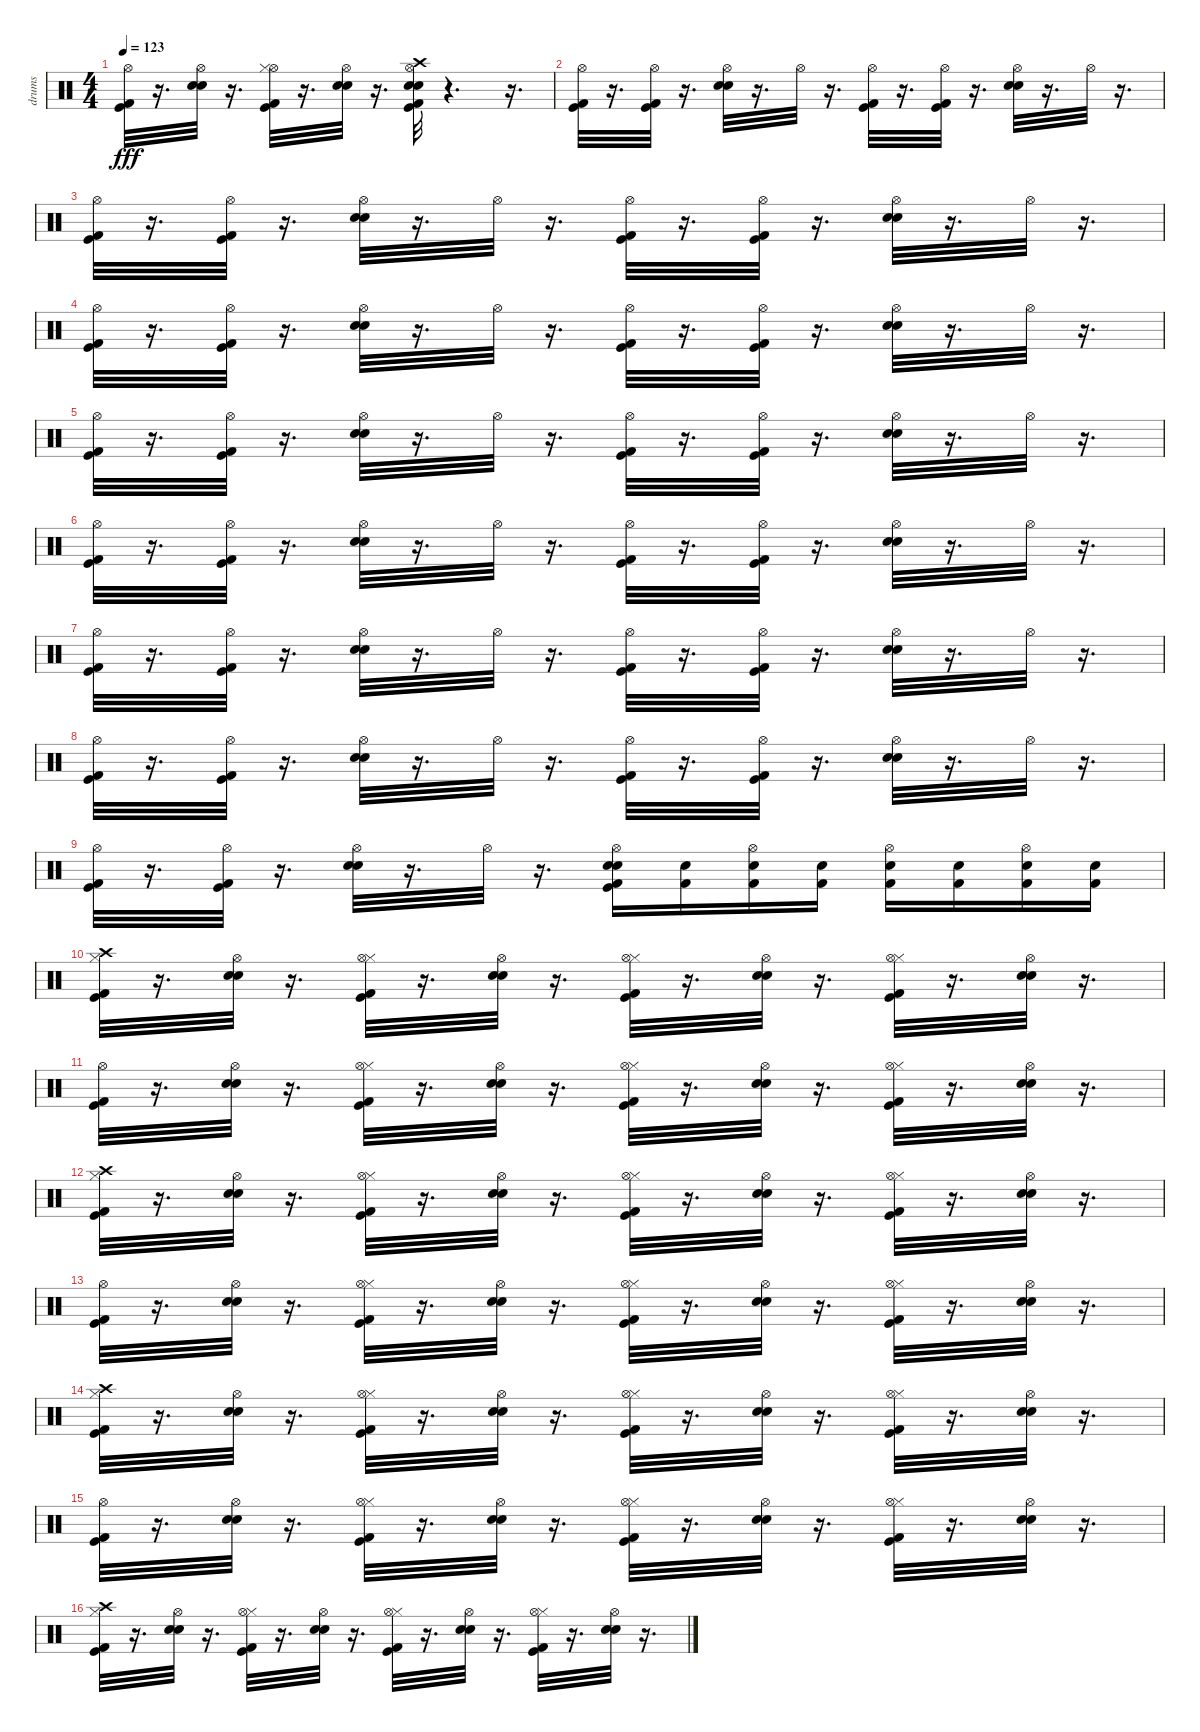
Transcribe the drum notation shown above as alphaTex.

\track ("drums" "drums") {instrument percussion}
\staff {score}
\articulation defaults
\ts (4 4)
\tempo 123
\clef neutral
\ks c
("Hi-Hat (open)" "Kick (hit)" "Kick (hit) 2").32{dy fff} r.16{d} ("Hi-Hat (open)" "Electric Snare (hit)" "Snare (hit) 2").32 r.16{d} ("Hi-Hat (open)" "Kick (hit) 2" "Kick (hit)" "Hi-Hat (closed)").32 r.16{d} ("Hi-Hat (open)" "Snare (hit) 2" "Electric Snare (hit)").32 r.16{d} ("Hi-Hat (open)" "Kick (hit) 2" "Kick (hit)" "Electric Snare (hit)" "Snare (hit) 2" "Crash high (hit)").32 r.4{d} r.16{d} |
("Hi-Hat (open)" "Kick (hit) 2" "Kick (hit)").32 r.16{d} ("Kick (hit)" "Kick (hit) 2" "Hi-Hat (open)").32 r.16{d} ("Snare (hit) 2" "Electric Snare (hit)" "Hi-Hat (open)").32 r.16{d} "Hi-Hat (open)".32 r.16{d} ("Kick (hit) 2" "Kick (hit)" "Hi-Hat (open)").32 r.16{d} ("Kick (hit) 2" "Kick (hit)" "Hi-Hat (open)").32 r.16{d} ("Snare (hit) 2" "Electric Snare (hit)" "Hi-Hat (open)").32 r.16{d} "Hi-Hat (open)".32 r.16{d} |
("Hi-Hat (open)" "Kick (hit) 2" "Kick (hit)").32 r.16{d} ("Kick (hit)" "Kick (hit) 2" "Hi-Hat (open)").32 r.16{d} ("Snare (hit) 2" "Electric Snare (hit)" "Hi-Hat (open)").32 r.16{d} "Hi-Hat (open)".32 r.16{d} ("Kick (hit) 2" "Kick (hit)" "Hi-Hat (open)").32 r.16{d} ("Kick (hit) 2" "Kick (hit)" "Hi-Hat (open)").32 r.16{d} ("Snare (hit) 2" "Electric Snare (hit)" "Hi-Hat (open)").32 r.16{d} "Hi-Hat (open)".32 r.16{d} |
("Kick (hit)" "Kick (hit) 2" "Hi-Hat (open)").32 r.16{d} ("Kick (hit)" "Kick (hit) 2" "Hi-Hat (open)").32 r.16{d} ("Snare (hit) 2" "Electric Snare (hit)" "Hi-Hat (open)").32 r.16{d} "Hi-Hat (open)".32 r.16{d} ("Kick (hit) 2" "Kick (hit)" "Hi-Hat (open)").32 r.16{d} ("Kick (hit) 2" "Kick (hit)" "Hi-Hat (open)").32 r.16{d} ("Snare (hit) 2" "Electric Snare (hit)" "Hi-Hat (open)").32 r.16{d} "Hi-Hat (open)".32 r.16{d} |
("Hi-Hat (open)" "Kick (hit) 2" "Kick (hit)").32 r.16{d} ("Kick (hit)" "Kick (hit) 2" "Hi-Hat (open)").32 r.16{d} ("Snare (hit) 2" "Electric Snare (hit)" "Hi-Hat (open)").32 r.16{d} "Hi-Hat (open)".32 r.16{d} ("Kick (hit) 2" "Kick (hit)" "Hi-Hat (open)").32 r.16{d} ("Kick (hit) 2" "Kick (hit)" "Hi-Hat (open)").32 r.16{d} ("Snare (hit) 2" "Electric Snare (hit)" "Hi-Hat (open)").32 r.16{d} "Hi-Hat (open)".32 r.16{d} |
("Kick (hit)" "Kick (hit) 2" "Hi-Hat (open)").32 r.16{d} ("Kick (hit)" "Kick (hit) 2" "Hi-Hat (open)").32 r.16{d} ("Snare (hit) 2" "Electric Snare (hit)" "Hi-Hat (open)").32 r.16{d} "Hi-Hat (open)".32 r.16{d} ("Kick (hit) 2" "Kick (hit)" "Hi-Hat (open)").32 r.16{d} ("Kick (hit) 2" "Kick (hit)" "Hi-Hat (open)").32 r.16{d} ("Snare (hit) 2" "Electric Snare (hit)" "Hi-Hat (open)").32 r.16{d} "Hi-Hat (open)".32 r.16{d} |
("Kick (hit)" "Kick (hit) 2" "Hi-Hat (open)").32 r.16{d} ("Kick (hit)" "Kick (hit) 2" "Hi-Hat (open)").32 r.16{d} ("Snare (hit) 2" "Electric Snare (hit)" "Hi-Hat (open)").32 r.16{d} "Hi-Hat (open)".32 r.16{d} ("Kick (hit) 2" "Kick (hit)" "Hi-Hat (open)").32 r.16{d} ("Kick (hit) 2" "Kick (hit)" "Hi-Hat (open)").32 r.16{d} ("Snare (hit) 2" "Electric Snare (hit)" "Hi-Hat (open)").32 r.16{d} "Hi-Hat (open)".32 r.16{d} |
("Kick (hit)" "Kick (hit) 2" "Hi-Hat (open)").32 r.16{d} ("Kick (hit)" "Kick (hit) 2" "Hi-Hat (open)").32 r.16{d} ("Snare (hit) 2" "Electric Snare (hit)" "Hi-Hat (open)").32 r.16{d} "Hi-Hat (open)".32 r.16{d} ("Kick (hit) 2" "Kick (hit)" "Hi-Hat (open)").32 r.16{d} ("Kick (hit) 2" "Kick (hit)" "Hi-Hat (open)").32 r.16{d} ("Snare (hit) 2" "Electric Snare (hit)" "Hi-Hat (open)").32 r.16{d} "Hi-Hat (open)".32 r.16{d} |
("Hi-Hat (open)" "Kick (hit)" "Kick (hit) 2").32 r.16{d} ("Kick (hit) 2" "Kick (hit)" "Hi-Hat (open)").32 r.16{d} ("Snare (hit) 2" "Electric Snare (hit)" "Hi-Hat (open)").32 r.16{d} "Hi-Hat (open)".32 r.16{d} ("Snare (hit) 2" "Kick (hit) 2" "Hi-Hat (open)" "Kick (hit)" "Electric Snare (hit)").16 ("Snare (hit) 2" "Kick (hit) 2").16 ("Hi-Hat (open)" "Snare (hit) 2" "Kick (hit) 2").16 ("Snare (hit) 2" "Kick (hit) 2").16 ("Snare (hit) 2" "Kick (hit) 2" "Hi-Hat (open)").16 ("Snare (hit) 2" "Kick (hit) 2").16 ("Hi-Hat (open)" "Snare (hit) 2" "Kick (hit) 2").16 ("Snare (hit) 2" "Kick (hit) 2").16 |
("Crash high (hit)" "Hi-Hat (closed)" "Kick (hit)" "Kick (hit) 2").32 r.16{d} ("Electric Snare (hit)" "Snare (hit) 2" "Hi-Hat (open)").32 r.16{d} ("Kick (hit) 2" "Kick (hit)" "Hi-Hat (closed)" "Hi-Hat (open)").32 r.16{d} ("Snare (hit) 2" "Electric Snare (hit)" "Hi-Hat (open)").32 r.16{d} ("Kick (hit) 2" "Kick (hit)" "Hi-Hat (closed)" "Hi-Hat (open)").32 r.16{d} ("Snare (hit) 2" "Electric Snare (hit)" "Hi-Hat (open)").32 r.16{d} ("Kick (hit) 2" "Kick (hit)" "Hi-Hat (closed)" "Hi-Hat (open)").32 r.16{d} ("Snare (hit) 2" "Electric Snare (hit)" "Hi-Hat (open)").32 r.16{d} |
("Hi-Hat (open)" "Kick (hit)" "Kick (hit) 2").32 r.16{d} ("Electric Snare (hit)" "Snare (hit) 2" "Hi-Hat (open)").32 r.16{d} ("Kick (hit) 2" "Kick (hit)" "Hi-Hat (closed)" "Hi-Hat (open)").32 r.16{d} ("Snare (hit) 2" "Electric Snare (hit)" "Hi-Hat (open)").32 r.16{d} ("Kick (hit) 2" "Kick (hit)" "Hi-Hat (closed)" "Hi-Hat (open)").32 r.16{d} ("Snare (hit) 2" "Electric Snare (hit)" "Hi-Hat (open)").32 r.16{d} ("Kick (hit) 2" "Kick (hit)" "Hi-Hat (closed)" "Hi-Hat (open)").32 r.16{d} ("Snare (hit) 2" "Electric Snare (hit)" "Hi-Hat (open)").32 r.16{d} |
("Kick (hit) 2" "Kick (hit)" "Hi-Hat (closed)" "Crash high (hit)").32 r.16{d} ("Electric Snare (hit)" "Snare (hit) 2" "Hi-Hat (open)").32 r.16{d} ("Kick (hit) 2" "Kick (hit)" "Hi-Hat (closed)" "Hi-Hat (open)").32 r.16{d} ("Snare (hit) 2" "Electric Snare (hit)" "Hi-Hat (open)").32 r.16{d} ("Kick (hit) 2" "Kick (hit)" "Hi-Hat (closed)" "Hi-Hat (open)").32 r.16{d} ("Snare (hit) 2" "Electric Snare (hit)" "Hi-Hat (open)").32 r.16{d} ("Kick (hit) 2" "Kick (hit)" "Hi-Hat (closed)" "Hi-Hat (open)").32 r.16{d} ("Snare (hit) 2" "Electric Snare (hit)" "Hi-Hat (open)").32 r.16{d} |
("Hi-Hat (open)" "Kick (hit)" "Kick (hit) 2").32 r.16{d} ("Electric Snare (hit)" "Snare (hit) 2" "Hi-Hat (open)").32 r.16{d} ("Kick (hit) 2" "Kick (hit)" "Hi-Hat (closed)" "Hi-Hat (open)").32 r.16{d} ("Snare (hit) 2" "Electric Snare (hit)" "Hi-Hat (open)").32 r.16{d} ("Kick (hit) 2" "Kick (hit)" "Hi-Hat (closed)" "Hi-Hat (open)").32 r.16{d} ("Snare (hit) 2" "Electric Snare (hit)" "Hi-Hat (open)").32 r.16{d} ("Kick (hit) 2" "Kick (hit)" "Hi-Hat (closed)" "Hi-Hat (open)").32 r.16{d} ("Snare (hit) 2" "Electric Snare (hit)" "Hi-Hat (open)").32 r.16{d} |
("Kick (hit) 2" "Kick (hit)" "Hi-Hat (closed)" "Crash high (hit)").32 r.16{d} ("Electric Snare (hit)" "Snare (hit) 2" "Hi-Hat (open)").32 r.16{d} ("Kick (hit) 2" "Kick (hit)" "Hi-Hat (closed)" "Hi-Hat (open)").32 r.16{d} ("Snare (hit) 2" "Electric Snare (hit)" "Hi-Hat (open)").32 r.16{d} ("Kick (hit) 2" "Kick (hit)" "Hi-Hat (closed)" "Hi-Hat (open)").32 r.16{d} ("Snare (hit) 2" "Electric Snare (hit)" "Hi-Hat (open)").32 r.16{d} ("Kick (hit) 2" "Kick (hit)" "Hi-Hat (closed)" "Hi-Hat (open)").32 r.16{d} ("Snare (hit) 2" "Electric Snare (hit)" "Hi-Hat (open)").32 r.16{d} |
("Hi-Hat (open)" "Kick (hit)" "Kick (hit) 2").32 r.16{d} ("Electric Snare (hit)" "Snare (hit) 2" "Hi-Hat (open)").32 r.16{d} ("Kick (hit) 2" "Kick (hit)" "Hi-Hat (closed)" "Hi-Hat (open)").32 r.16{d} ("Snare (hit) 2" "Electric Snare (hit)" "Hi-Hat (open)").32 r.16{d} ("Kick (hit) 2" "Kick (hit)" "Hi-Hat (closed)" "Hi-Hat (open)").32 r.16{d} ("Snare (hit) 2" "Electric Snare (hit)" "Hi-Hat (open)").32 r.16{d} ("Kick (hit) 2" "Kick (hit)" "Hi-Hat (closed)" "Hi-Hat (open)").32 r.16{d} ("Snare (hit) 2" "Electric Snare (hit)" "Hi-Hat (open)").32 r.16{d} |
("Kick (hit) 2" "Kick (hit)" "Hi-Hat (closed)" "Crash high (hit)").32 r.16{d} ("Electric Snare (hit)" "Snare (hit) 2" "Hi-Hat (open)").32 r.16{d} ("Kick (hit) 2" "Kick (hit)" "Hi-Hat (closed)" "Hi-Hat (open)").32 r.16{d} ("Snare (hit) 2" "Electric Snare (hit)" "Hi-Hat (open)").32 r.16{d} ("Kick (hit) 2" "Kick (hit)" "Hi-Hat (closed)" "Hi-Hat (open)").32 r.16{d} ("Snare (hit) 2" "Electric Snare (hit)" "Hi-Hat (open)").32 r.16{d} ("Kick (hit) 2" "Kick (hit)" "Hi-Hat (closed)" "Hi-Hat (open)").32 r.16{d} ("Snare (hit) 2" "Electric Snare (hit)" "Hi-Hat (open)").32 r.16{d}
